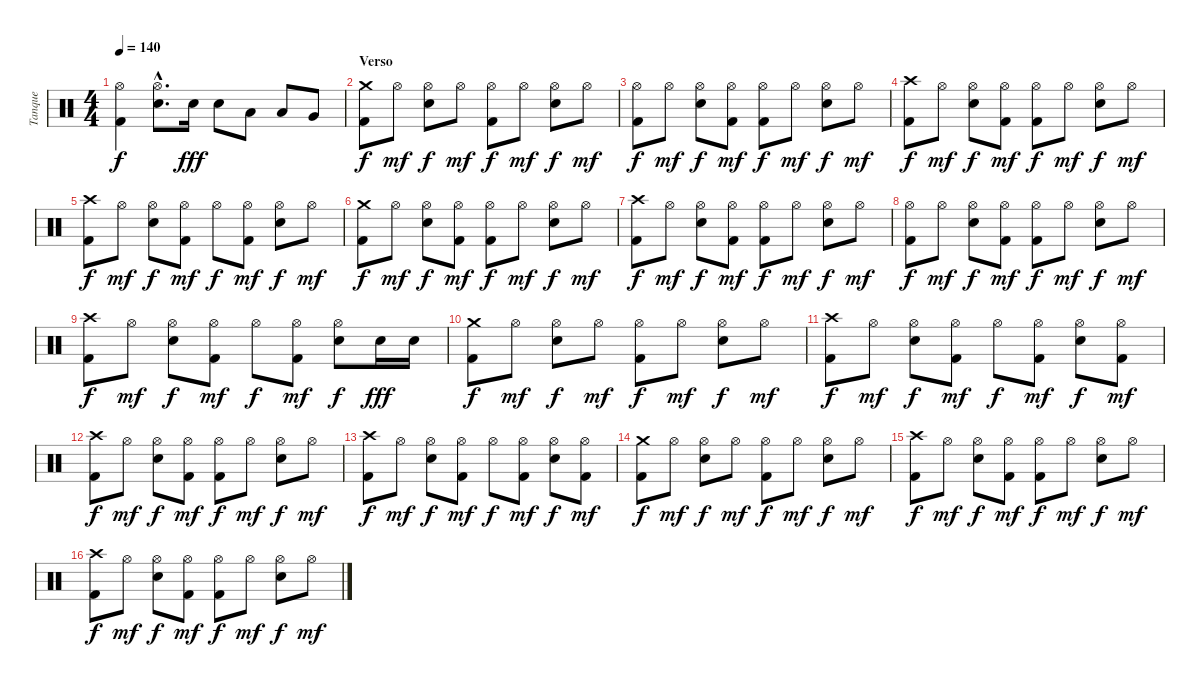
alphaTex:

\track ("Tanque" "Tanque") {instrument percussion}
\staff {score}
\articulation defaults
\ts (4 4)
\tempo 140
\clef neutral
\ks c
("Hi-Hat (open)" "Kick (hit) 2").4{dy f} ("Hi-Hat (open)"{hac} "Electric Snare (hit)"{hac}).8{d} "Electric Snare (hit)".16{dy fff} "Electric Snare (hit)".8 "Low Tom (hit)".8 "Low Tom (hit)".8 "Very Low Tom (hit)".8 |
\section ("" "Verso")
("Crash medium (hit)" "Kick (hit) 2").8{dy f} "Hi-Hat (open)".8{dy mf} ("Hi-Hat (open)" "Electric Snare (hit)").8{dy f} "Hi-Hat (open)".8{dy mf} ("Hi-Hat (open)" "Kick (hit) 2").8{dy f} "Hi-Hat (open)".8{dy mf} ("Hi-Hat (open)" "Electric Snare (hit)").8{dy f} "Hi-Hat (open)".8{dy mf} |
("Hi-Hat (open)" "Kick (hit) 2").8{dy f} "Hi-Hat (open)".8{dy mf} ("Hi-Hat (open)" "Electric Snare (hit)").8{dy f} ("Hi-Hat (open)" "Kick (hit) 2").8{dy mf} ("Hi-Hat (open)" "Kick (hit) 2").8{dy f} "Hi-Hat (open)".8{dy mf} ("Hi-Hat (open)" "Electric Snare (hit)").8{dy f} "Hi-Hat (open)".8{dy mf} |
("Crash high (hit)" "Kick (hit) 2").8{dy f} "Hi-Hat (open)".8{dy mf} ("Hi-Hat (open)" "Electric Snare (hit)").8{dy f} ("Hi-Hat (open)" "Kick (hit) 2").8{dy mf} ("Hi-Hat (open)" "Kick (hit) 2").8{dy f} "Hi-Hat (open)".8{dy mf} ("Hi-Hat (open)" "Electric Snare (hit)").8{dy f} "Hi-Hat (open)".8{dy mf} |
("Crash high (hit)" "Kick (hit) 2").8{dy f} "Hi-Hat (open)".8{dy mf} ("Hi-Hat (open)" "Electric Snare (hit)").8{dy f} ("Hi-Hat (open)" "Kick (hit) 2").8{dy mf} "Hi-Hat (open)".8{dy f} ("Hi-Hat (open)" "Kick (hit) 2").8{dy mf} ("Hi-Hat (open)" "Electric Snare (hit)").8{dy f} "Hi-Hat (open)".8{dy mf} |
("Crash medium (hit)" "Kick (hit) 2").8{dy f} "Hi-Hat (open)".8{dy mf} ("Hi-Hat (open)" "Electric Snare (hit)").8{dy f} ("Hi-Hat (open)" "Kick (hit) 2").8{dy mf} ("Hi-Hat (open)" "Kick (hit) 2").8{dy f} "Hi-Hat (open)".8{dy mf} ("Hi-Hat (open)" "Electric Snare (hit)").8{dy f} "Hi-Hat (open)".8{dy mf} |
("Crash high (hit)" "Kick (hit) 2").8{dy f} "Hi-Hat (open)".8{dy mf} ("Hi-Hat (open)" "Electric Snare (hit)").8{dy f} ("Hi-Hat (open)" "Kick (hit) 2").8{dy mf} ("Hi-Hat (open)" "Kick (hit) 2").8{dy f} "Hi-Hat (open)".8{dy mf} ("Hi-Hat (open)" "Electric Snare (hit)").8{dy f} "Hi-Hat (open)".8{dy mf} |
("Hi-Hat (open)" "Kick (hit) 2").8{dy f} "Hi-Hat (open)".8{dy mf} ("Hi-Hat (open)" "Electric Snare (hit)").8{dy f} ("Hi-Hat (open)" "Kick (hit) 2").8{dy mf} ("Hi-Hat (open)" "Kick (hit) 2").8{dy f} "Hi-Hat (open)".8{dy mf} ("Hi-Hat (open)" "Electric Snare (hit)").8{dy f} "Hi-Hat (open)".8{dy mf} |
("Crash high (hit)" "Kick (hit) 2").8{dy f} "Hi-Hat (open)".8{dy mf} ("Hi-Hat (open)" "Electric Snare (hit)").8{dy f} ("Hi-Hat (open)" "Kick (hit) 2").8{dy mf} "Hi-Hat (open)".8{dy f} ("Hi-Hat (open)" "Kick (hit) 2").8{dy mf} ("Hi-Hat (open)" "Electric Snare (hit)").8{dy f} "Electric Snare (hit)".16{dy fff} "Electric Snare (hit)".16 |
("Crash medium (hit)" "Kick (hit) 2").8{dy f} "Hi-Hat (open)".8{dy mf} ("Hi-Hat (open)" "Electric Snare (hit)").8{dy f} "Hi-Hat (open)".8{dy mf} ("Hi-Hat (open)" "Kick (hit) 2").8{dy f} "Hi-Hat (open)".8{dy mf} ("Hi-Hat (open)" "Electric Snare (hit)").8{dy f} "Hi-Hat (open)".8{dy mf} |
("Crash high (hit)" "Kick (hit) 2").8{dy f} "Hi-Hat (open)".8{dy mf} ("Hi-Hat (open)" "Electric Snare (hit)").8{dy f} ("Hi-Hat (open)" "Kick (hit) 2").8{dy mf} "Hi-Hat (open)".8{dy f} ("Hi-Hat (open)" "Kick (hit) 2").8{dy mf} ("Hi-Hat (open)" "Electric Snare (hit)").8{dy f} ("Hi-Hat (open)" "Kick (hit) 2").8{dy mf} |
("Crash high (hit)" "Kick (hit) 2").8{dy f} "Hi-Hat (open)".8{dy mf} ("Hi-Hat (open)" "Electric Snare (hit)").8{dy f} ("Hi-Hat (open)" "Kick (hit) 2").8{dy mf} ("Hi-Hat (open)" "Kick (hit) 2").8{dy f} "Hi-Hat (open)".8{dy mf} ("Hi-Hat (open)" "Electric Snare (hit)").8{dy f} "Hi-Hat (open)".8{dy mf} |
("Crash high (hit)" "Kick (hit) 2").8{dy f} "Hi-Hat (open)".8{dy mf} ("Hi-Hat (open)" "Electric Snare (hit)").8{dy f} ("Hi-Hat (open)" "Kick (hit) 2").8{dy mf} "Hi-Hat (open)".8{dy f} ("Hi-Hat (open)" "Kick (hit) 2").8{dy mf} ("Hi-Hat (open)" "Electric Snare (hit)").8{dy f} ("Hi-Hat (open)" "Kick (hit) 2").8{dy mf} |
("Crash medium (hit)" "Kick (hit) 2").8{dy f} "Hi-Hat (open)".8{dy mf} ("Hi-Hat (open)" "Electric Snare (hit)").8{dy f} "Hi-Hat (open)".8{dy mf} ("Hi-Hat (open)" "Kick (hit) 2").8{dy f} "Hi-Hat (open)".8{dy mf} ("Hi-Hat (open)" "Electric Snare (hit)").8{dy f} "Hi-Hat (open)".8{dy mf} |
("Crash high (hit)" "Kick (hit) 2").8{dy f} "Hi-Hat (open)".8{dy mf} ("Hi-Hat (open)" "Electric Snare (hit)").8{dy f} ("Hi-Hat (open)" "Kick (hit) 2").8{dy mf} ("Hi-Hat (open)" "Kick (hit) 2").8{dy f} "Hi-Hat (open)".8{dy mf} ("Hi-Hat (open)" "Electric Snare (hit)").8{dy f} "Hi-Hat (open)".8{dy mf} |
("Crash high (hit)" "Kick (hit) 2").8{dy f} "Hi-Hat (open)".8{dy mf} ("Hi-Hat (open)" "Electric Snare (hit)").8{dy f} ("Hi-Hat (open)" "Kick (hit) 2").8{dy mf} ("Hi-Hat (open)" "Kick (hit) 2").8{dy f} "Hi-Hat (open)".8{dy mf} ("Hi-Hat (open)" "Electric Snare (hit)").8{dy f} "Hi-Hat (open)".8{dy mf}
